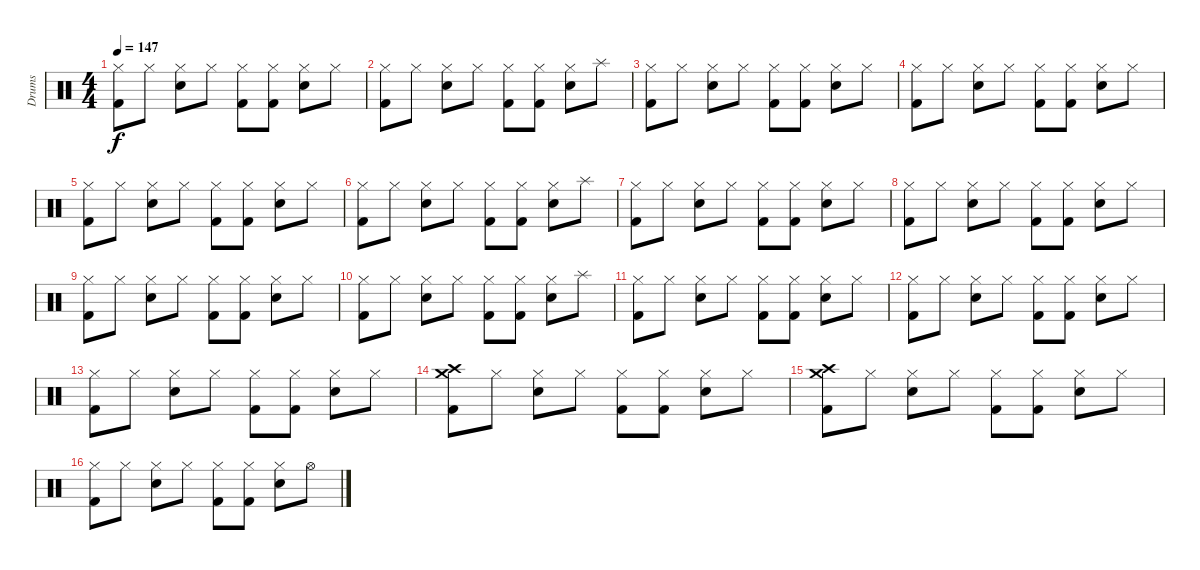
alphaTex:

\track ("Drums" "Drums") {instrument percussion}
\staff {score}
\articulation defaults
\ts (4 4)
\tempo 147
\clef neutral
\ks c
("Hi-Hat (closed)" "Kick (hit) 2").8{dy f} "Hi-Hat (closed)".8 ("Hi-Hat (closed)" "Electric Snare (hit)").8 "Hi-Hat (closed)".8 ("Hi-Hat (closed)" "Kick (hit) 2").8 ("Hi-Hat (closed)" "Kick (hit) 2").8 ("Hi-Hat (closed)" "Electric Snare (hit)").8 "Hi-Hat (closed)".8 |
("Hi-Hat (closed)" "Kick (hit) 2").8 "Hi-Hat (closed)".8 ("Hi-Hat (closed)" "Electric Snare (hit)").8 "Hi-Hat (closed)".8 ("Hi-Hat (closed)" "Kick (hit) 2").8 ("Hi-Hat (closed)" "Kick (hit) 2").8 ("Hi-Hat (closed)" "Electric Snare (hit)").8 "Splash (hit)".8 |
("Hi-Hat (closed)" "Kick (hit) 2").8 "Hi-Hat (closed)".8 ("Hi-Hat (closed)" "Electric Snare (hit)").8 "Hi-Hat (closed)".8 ("Hi-Hat (closed)" "Kick (hit) 2").8 ("Hi-Hat (closed)" "Kick (hit) 2").8 ("Hi-Hat (closed)" "Electric Snare (hit)").8 "Hi-Hat (closed)".8 |
("Hi-Hat (closed)" "Kick (hit) 2").8 "Hi-Hat (closed)".8 ("Hi-Hat (closed)" "Electric Snare (hit)").8 "Hi-Hat (closed)".8 ("Hi-Hat (closed)" "Kick (hit) 2").8 ("Hi-Hat (closed)" "Kick (hit) 2").8 ("Hi-Hat (closed)" "Electric Snare (hit)").8 "Hi-Hat (closed)".8 |
("Hi-Hat (closed)" "Kick (hit) 2").8 "Hi-Hat (closed)".8 ("Hi-Hat (closed)" "Electric Snare (hit)").8 "Hi-Hat (closed)".8 ("Hi-Hat (closed)" "Kick (hit) 2").8 ("Hi-Hat (closed)" "Kick (hit) 2").8 ("Hi-Hat (closed)" "Electric Snare (hit)").8 "Hi-Hat (closed)".8 |
("Hi-Hat (closed)" "Kick (hit) 2").8 "Hi-Hat (closed)".8 ("Hi-Hat (closed)" "Electric Snare (hit)").8 "Hi-Hat (closed)".8 ("Hi-Hat (closed)" "Kick (hit) 2").8 ("Hi-Hat (closed)" "Kick (hit) 2").8 ("Hi-Hat (closed)" "Electric Snare (hit)").8 "Splash (hit)".8 |
("Hi-Hat (closed)" "Kick (hit) 2").8 "Hi-Hat (closed)".8 ("Hi-Hat (closed)" "Electric Snare (hit)").8 "Hi-Hat (closed)".8 ("Hi-Hat (closed)" "Kick (hit) 2").8 ("Hi-Hat (closed)" "Kick (hit) 2").8 ("Hi-Hat (closed)" "Electric Snare (hit)").8 "Hi-Hat (closed)".8 |
("Hi-Hat (closed)" "Kick (hit) 2").8 "Hi-Hat (closed)".8 ("Hi-Hat (closed)" "Electric Snare (hit)").8 "Hi-Hat (closed)".8 ("Hi-Hat (closed)" "Kick (hit) 2").8 ("Hi-Hat (closed)" "Kick (hit) 2").8 ("Hi-Hat (closed)" "Electric Snare (hit)").8 "Hi-Hat (closed)".8 |
("Hi-Hat (closed)" "Kick (hit) 2").8 "Hi-Hat (closed)".8 ("Hi-Hat (closed)" "Electric Snare (hit)").8 "Hi-Hat (closed)".8 ("Hi-Hat (closed)" "Kick (hit) 2").8 ("Hi-Hat (closed)" "Kick (hit) 2").8 ("Hi-Hat (closed)" "Electric Snare (hit)").8 "Hi-Hat (closed)".8 |
("Hi-Hat (closed)" "Kick (hit) 2").8 "Hi-Hat (closed)".8 ("Hi-Hat (closed)" "Electric Snare (hit)").8 "Hi-Hat (closed)".8 ("Hi-Hat (closed)" "Kick (hit) 2").8 ("Hi-Hat (closed)" "Kick (hit) 2").8 ("Hi-Hat (closed)" "Electric Snare (hit)").8 "Splash (hit)".8 |
("Hi-Hat (closed)" "Kick (hit) 2").8 "Hi-Hat (closed)".8 ("Hi-Hat (closed)" "Electric Snare (hit)").8 "Hi-Hat (closed)".8 ("Hi-Hat (closed)" "Kick (hit) 2").8 ("Hi-Hat (closed)" "Kick (hit) 2").8 ("Hi-Hat (closed)" "Electric Snare (hit)").8 "Hi-Hat (closed)".8 |
("Hi-Hat (closed)" "Kick (hit) 2").8 "Hi-Hat (closed)".8 ("Hi-Hat (closed)" "Electric Snare (hit)").8 "Hi-Hat (closed)".8 ("Hi-Hat (closed)" "Kick (hit) 2").8 ("Hi-Hat (closed)" "Kick (hit) 2").8 ("Hi-Hat (closed)" "Electric Snare (hit)").8 "Hi-Hat (closed)".8 |
("Hi-Hat (closed)" "Kick (hit) 2").8 "Hi-Hat (closed)".8 ("Hi-Hat (closed)" "Electric Snare (hit)").8 "Hi-Hat (closed)".8 ("Hi-Hat (closed)" "Kick (hit) 2").8 ("Hi-Hat (closed)" "Kick (hit) 2").8 ("Hi-Hat (closed)" "Electric Snare (hit)").8 "Hi-Hat (closed)".8 |
("Crash medium (hit)" "Crash high (hit)" "Kick (hit) 2").8 "Hi-Hat (closed)".8 ("Hi-Hat (closed)" "Electric Snare (hit)").8 "Hi-Hat (closed)".8 ("Hi-Hat (closed)" "Kick (hit) 2").8 ("Hi-Hat (closed)" "Kick (hit) 2").8 ("Hi-Hat (closed)" "Electric Snare (hit)").8 "Hi-Hat (closed)".8 |
("Crash medium (hit)" "Crash high (hit)" "Kick (hit) 2").8 "Hi-Hat (closed)".8 ("Hi-Hat (closed)" "Electric Snare (hit)").8 "Hi-Hat (closed)".8 ("Hi-Hat (closed)" "Kick (hit) 2").8 ("Hi-Hat (closed)" "Kick (hit) 2").8 ("Hi-Hat (closed)" "Electric Snare (hit)").8 "Hi-Hat (closed)".8 |
("Hi-Hat (closed)" "Kick (hit) 2").8 "Hi-Hat (closed)".8 ("Hi-Hat (closed)" "Electric Snare (hit)").8 "Hi-Hat (closed)".8 ("Hi-Hat (closed)" "Kick (hit) 2").8 ("Hi-Hat (closed)" "Kick (hit) 2").8 ("Hi-Hat (closed)" "Electric Snare (hit)").8 "Hi-Hat (open)".8
